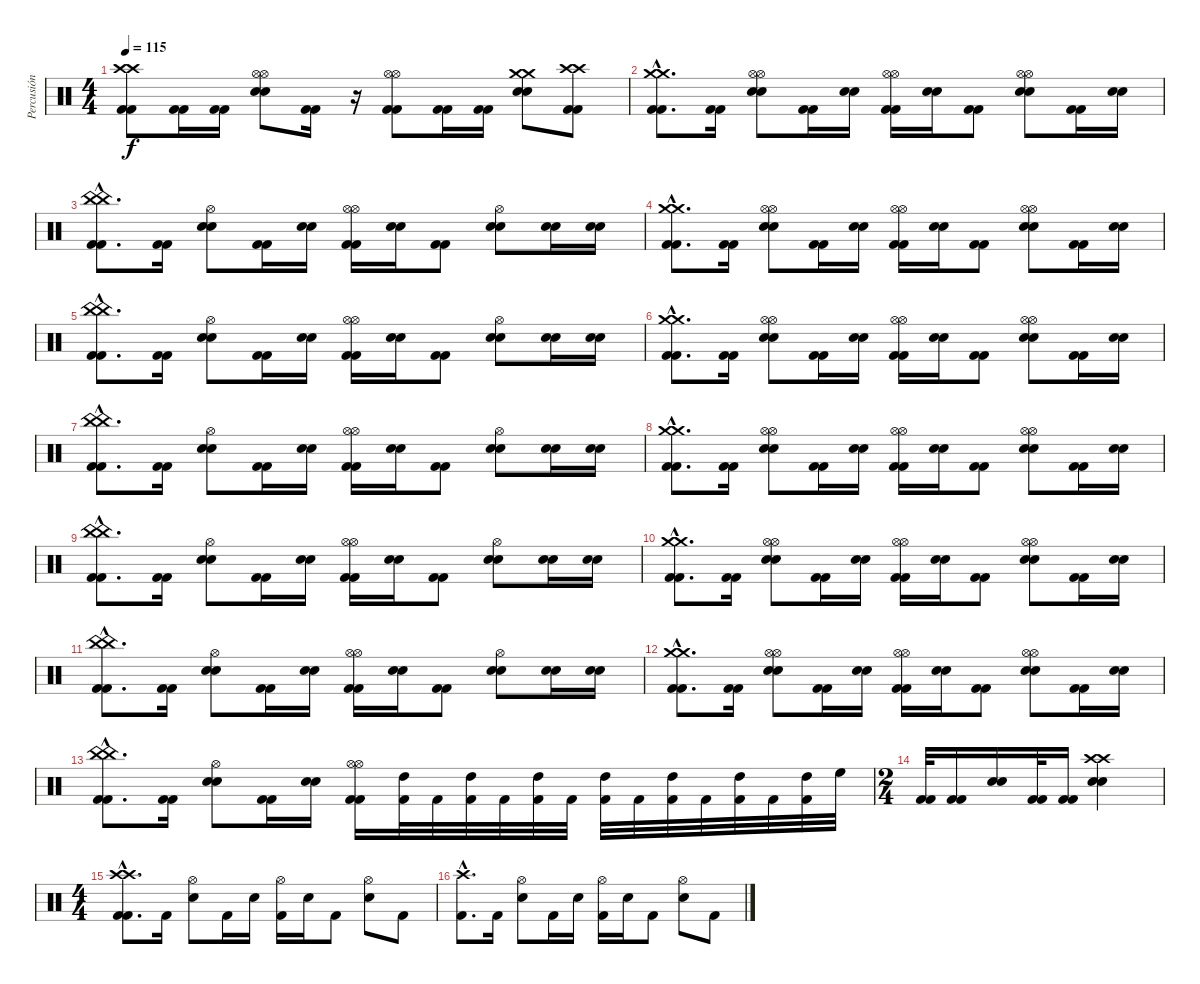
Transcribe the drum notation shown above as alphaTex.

\track ("Percusión" "Percusión") {instrument percussion}
\staff {score}
\articulation defaults
\ts (4 4)
\tempo 115
\clef neutral
\ks c
("Crash high (hit)" "Crash high (hit)" "Kick (hit) 2" "Kick (hit) 2").8{dy f} ("Kick (hit) 2" "Kick (hit) 2").16 ("Kick (hit) 2" "Kick (hit) 2").16 ("Hi-Hat (open)" "Hi-Hat (open)" "Electric Snare (hit)" "Electric Snare (hit)").8 ("Kick (hit) 2" "Kick (hit) 2").16 r.16 ("Hi-Hat (open)" "Hi-Hat (open)" "Kick (hit) 2" "Kick (hit) 2").8 ("Kick (hit) 2" "Kick (hit) 2").16 ("Kick (hit) 2" "Kick (hit) 2").16 ("Crash medium (hit)" "Crash medium (hit)" "Electric Snare (hit)" "Electric Snare (hit)").8 ("Crash high (hit)" "Crash high (hit)" "Kick (hit) 2" "Kick (hit) 2").8 |
("Crash medium (hit)"{hac} "Crash medium (hit)"{hac} "Kick (hit) 2"{hac} "Kick (hit) 2"{hac}).8{d} ("Kick (hit) 2" "Kick (hit) 2").16 ("Hi-Hat (open)" "Hi-Hat (open)" "Electric Snare (hit)" "Electric Snare (hit)").8 ("Kick (hit) 2" "Kick (hit) 2").16 ("Electric Snare (hit)" "Electric Snare (hit)").16 ("Hi-Hat (open)" "Hi-Hat (open)" "Kick (hit) 2" "Kick (hit) 2").16 ("Electric Snare (hit)" "Electric Snare (hit)").16 ("Kick (hit) 2" "Kick (hit) 2").8 ("Hi-Hat (open)" "Hi-Hat (open)" "Electric Snare (hit)" "Electric Snare (hit)").8 ("Kick (hit) 2" "Kick (hit) 2").16 ("Electric Snare (hit)" "Electric Snare (hit)").16 |
("China (hit)"{hac} "China (hit)"{hac} "Kick (hit) 2"{hac} "Kick (hit) 2"{hac}).8{d} ("Kick (hit) 2" "Kick (hit) 2").16 ("Hi-Hat (open)" "Electric Snare (hit)" "Electric Snare (hit)").8 ("Kick (hit) 2" "Kick (hit) 2").16 ("Electric Snare (hit)" "Electric Snare (hit)").16 ("Hi-Hat (open)" "Hi-Hat (open)" "Kick (hit) 2" "Kick (hit) 2").16 ("Electric Snare (hit)" "Electric Snare (hit)").16 ("Kick (hit) 2" "Kick (hit) 2").8 ("Hi-Hat (open)" "Electric Snare (hit)" "Electric Snare (hit)").8 ("Electric Snare (hit)" "Electric Snare (hit)").16 ("Electric Snare (hit)" "Electric Snare (hit)").16 |
("Crash medium (hit)"{hac} "Crash medium (hit)"{hac} "Kick (hit) 2"{hac} "Kick (hit) 2"{hac}).8{d} ("Kick (hit) 2" "Kick (hit) 2").16 ("Hi-Hat (open)" "Hi-Hat (open)" "Electric Snare (hit)" "Electric Snare (hit)").8 ("Kick (hit) 2" "Kick (hit) 2").16 ("Electric Snare (hit)" "Electric Snare (hit)").16 ("Hi-Hat (open)" "Hi-Hat (open)" "Kick (hit) 2" "Kick (hit) 2").16 ("Electric Snare (hit)" "Electric Snare (hit)").16 ("Kick (hit) 2" "Kick (hit) 2").8 ("Hi-Hat (open)" "Hi-Hat (open)" "Electric Snare (hit)" "Electric Snare (hit)").8 ("Kick (hit) 2" "Kick (hit) 2").16 ("Electric Snare (hit)" "Electric Snare (hit)").16 |
("China (hit)"{hac} "China (hit)"{hac} "Kick (hit) 2"{hac} "Kick (hit) 2"{hac}).8{d} ("Kick (hit) 2" "Kick (hit) 2").16 ("Hi-Hat (open)" "Electric Snare (hit)" "Electric Snare (hit)").8 ("Kick (hit) 2" "Kick (hit) 2").16 ("Electric Snare (hit)" "Electric Snare (hit)").16 ("Hi-Hat (open)" "Hi-Hat (open)" "Kick (hit) 2" "Kick (hit) 2").16 ("Electric Snare (hit)" "Electric Snare (hit)").16 ("Kick (hit) 2" "Kick (hit) 2").8 ("Hi-Hat (open)" "Electric Snare (hit)" "Electric Snare (hit)").8 ("Electric Snare (hit)" "Electric Snare (hit)").16 ("Electric Snare (hit)" "Electric Snare (hit)").16 |
("Crash medium (hit)"{hac} "Crash medium (hit)"{hac} "Kick (hit) 2"{hac} "Kick (hit) 2"{hac}).8{d} ("Kick (hit) 2" "Kick (hit) 2").16 ("Hi-Hat (open)" "Hi-Hat (open)" "Electric Snare (hit)" "Electric Snare (hit)").8 ("Kick (hit) 2" "Kick (hit) 2").16 ("Electric Snare (hit)" "Electric Snare (hit)").16 ("Hi-Hat (open)" "Hi-Hat (open)" "Kick (hit) 2" "Kick (hit) 2").16 ("Electric Snare (hit)" "Electric Snare (hit)").16 ("Kick (hit) 2" "Kick (hit) 2").8 ("Hi-Hat (open)" "Hi-Hat (open)" "Electric Snare (hit)" "Electric Snare (hit)").8 ("Kick (hit) 2" "Kick (hit) 2").16 ("Electric Snare (hit)" "Electric Snare (hit)").16 |
("China (hit)"{hac} "China (hit)"{hac} "Kick (hit) 2"{hac} "Kick (hit) 2"{hac}).8{d} ("Kick (hit) 2" "Kick (hit) 2").16 ("Hi-Hat (open)" "Electric Snare (hit)" "Electric Snare (hit)").8 ("Kick (hit) 2" "Kick (hit) 2").16 ("Electric Snare (hit)" "Electric Snare (hit)").16 ("Hi-Hat (open)" "Hi-Hat (open)" "Kick (hit) 2" "Kick (hit) 2").16 ("Electric Snare (hit)" "Electric Snare (hit)").16 ("Kick (hit) 2" "Kick (hit) 2").8 ("Hi-Hat (open)" "Electric Snare (hit)" "Electric Snare (hit)").8 ("Electric Snare (hit)" "Electric Snare (hit)").16 ("Electric Snare (hit)" "Electric Snare (hit)").16 |
("Crash medium (hit)"{hac} "Crash medium (hit)"{hac} "Kick (hit) 2"{hac} "Kick (hit) 2"{hac}).8{d} ("Kick (hit) 2" "Kick (hit) 2").16 ("Hi-Hat (open)" "Hi-Hat (open)" "Electric Snare (hit)" "Electric Snare (hit)").8 ("Kick (hit) 2" "Kick (hit) 2").16 ("Electric Snare (hit)" "Electric Snare (hit)").16 ("Hi-Hat (open)" "Hi-Hat (open)" "Kick (hit) 2" "Kick (hit) 2").16 ("Electric Snare (hit)" "Electric Snare (hit)").16 ("Kick (hit) 2" "Kick (hit) 2").8 ("Hi-Hat (open)" "Hi-Hat (open)" "Electric Snare (hit)" "Electric Snare (hit)").8 ("Kick (hit) 2" "Kick (hit) 2").16 ("Electric Snare (hit)" "Electric Snare (hit)").16 |
("China (hit)"{hac} "China (hit)"{hac} "Kick (hit) 2"{hac} "Kick (hit) 2"{hac}).8{d} ("Kick (hit) 2" "Kick (hit) 2").16 ("Hi-Hat (open)" "Electric Snare (hit)" "Electric Snare (hit)").8 ("Kick (hit) 2" "Kick (hit) 2").16 ("Electric Snare (hit)" "Electric Snare (hit)").16 ("Hi-Hat (open)" "Hi-Hat (open)" "Kick (hit) 2" "Kick (hit) 2").16 ("Electric Snare (hit)" "Electric Snare (hit)").16 ("Kick (hit) 2" "Kick (hit) 2").8 ("Hi-Hat (open)" "Electric Snare (hit)" "Electric Snare (hit)").8 ("Electric Snare (hit)" "Electric Snare (hit)").16 ("Electric Snare (hit)" "Electric Snare (hit)").16 |
("Crash medium (hit)"{hac} "Crash medium (hit)"{hac} "Kick (hit) 2"{hac} "Kick (hit) 2"{hac}).8{d} ("Kick (hit) 2" "Kick (hit) 2").16 ("Hi-Hat (open)" "Hi-Hat (open)" "Electric Snare (hit)" "Electric Snare (hit)").8 ("Kick (hit) 2" "Kick (hit) 2").16 ("Electric Snare (hit)" "Electric Snare (hit)").16 ("Hi-Hat (open)" "Hi-Hat (open)" "Kick (hit) 2" "Kick (hit) 2").16 ("Electric Snare (hit)" "Electric Snare (hit)").16 ("Kick (hit) 2" "Kick (hit) 2").8 ("Hi-Hat (open)" "Hi-Hat (open)" "Electric Snare (hit)" "Electric Snare (hit)").8 ("Kick (hit) 2" "Kick (hit) 2").16 ("Electric Snare (hit)" "Electric Snare (hit)").16 |
("China (hit)"{hac} "China (hit)"{hac} "Kick (hit) 2"{hac} "Kick (hit) 2"{hac}).8{d} ("Kick (hit) 2" "Kick (hit) 2").16 ("Hi-Hat (open)" "Electric Snare (hit)" "Electric Snare (hit)").8 ("Kick (hit) 2" "Kick (hit) 2").16 ("Electric Snare (hit)" "Electric Snare (hit)").16 ("Hi-Hat (open)" "Hi-Hat (open)" "Kick (hit) 2" "Kick (hit) 2").16 ("Electric Snare (hit)" "Electric Snare (hit)").16 ("Kick (hit) 2" "Kick (hit) 2").8 ("Hi-Hat (open)" "Electric Snare (hit)" "Electric Snare (hit)").8 ("Electric Snare (hit)" "Electric Snare (hit)").16 ("Electric Snare (hit)" "Electric Snare (hit)").16 |
("Crash medium (hit)"{hac} "Crash medium (hit)"{hac} "Kick (hit) 2"{hac} "Kick (hit) 2"{hac}).8{d} ("Kick (hit) 2" "Kick (hit) 2").16 ("Hi-Hat (open)" "Hi-Hat (open)" "Electric Snare (hit)" "Electric Snare (hit)").8 ("Kick (hit) 2" "Kick (hit) 2").16 ("Electric Snare (hit)" "Electric Snare (hit)").16 ("Hi-Hat (open)" "Hi-Hat (open)" "Kick (hit) 2" "Kick (hit) 2").16 ("Electric Snare (hit)" "Electric Snare (hit)").16 ("Kick (hit) 2" "Kick (hit) 2").8 ("Hi-Hat (open)" "Hi-Hat (open)" "Electric Snare (hit)" "Electric Snare (hit)").8 ("Kick (hit) 2" "Kick (hit) 2").16 ("Electric Snare (hit)" "Electric Snare (hit)").16 |
("China (hit)"{hac} "China (hit)"{hac} "Kick (hit) 2"{hac} "Kick (hit) 2"{hac}).8{d} ("Kick (hit) 2" "Kick (hit) 2").16 ("Hi-Hat (open)" "Electric Snare (hit)" "Electric Snare (hit)").8 ("Kick (hit) 2" "Kick (hit) 2").16 ("Electric Snare (hit)" "Electric Snare (hit)").16 ("Hi-Hat (open)" "Hi-Hat (open)" "Kick (hit) 2" "Kick (hit) 2").16 ("High Tom (hit)" "Kick (hit) 2").32 "Kick (hit) 2".32 ("High Tom (hit)" "Kick (hit) 2").32 "Kick (hit) 2".32 ("High Tom (hit)" "Kick (hit) 2").32 "Kick (hit) 2".32 ("High Tom (hit)" "Kick (hit) 2").32 "Kick (hit) 2".32 ("High Tom (hit)" "Kick (hit) 2").32 "Kick (hit) 2".32 ("High Tom (hit)" "Kick (hit) 2").32 "Kick (hit) 2".32 ("High Tom (hit)" "Kick (hit) 2").32 "High Floor Tom (hit)".32 |
\ts (2 4)
("Kick (hit) 2" "Kick (hit) 2").32 ("Kick (hit) 2" "Kick (hit) 2").16 ("Electric Snare (hit)" "Electric Snare (hit)").16 ("Kick (hit) 2" "Kick (hit) 2").32 ("Kick (hit) 2" "Kick (hit) 2").16 ("Crash high (hit)" "Crash high (hit)" "Electric Snare (hit)" "Electric Snare (hit)").4 |
\ts (4 4)
("Crash high (hit)"{hac} "Crash high (hit)"{hac} "Kick (hit) 2"{hac} "Kick (hit) 2"{hac}).8{d} "Kick (hit) 2".16 ("Hi-Hat (open)" "Electric Snare (hit)").8 "Kick (hit) 2".16 "Electric Snare (hit)".16 ("Hi-Hat (open)" "Kick (hit) 2").16 "Electric Snare (hit)".16 "Kick (hit) 2".8 ("Hi-Hat (open)" "Electric Snare (hit)").8 "Kick (hit) 2".8 |
("Crash high (hit)"{hac} "Kick (hit) 2"{hac}).8{d} "Kick (hit) 2".16 ("Hi-Hat (open)" "Electric Snare (hit)").8 "Kick (hit) 2".16 "Electric Snare (hit)".16 ("Hi-Hat (open)" "Kick (hit) 2").16 "Electric Snare (hit)".16 "Kick (hit) 2".8 ("Hi-Hat (open)" "Electric Snare (hit)").8 "Kick (hit) 2".8
